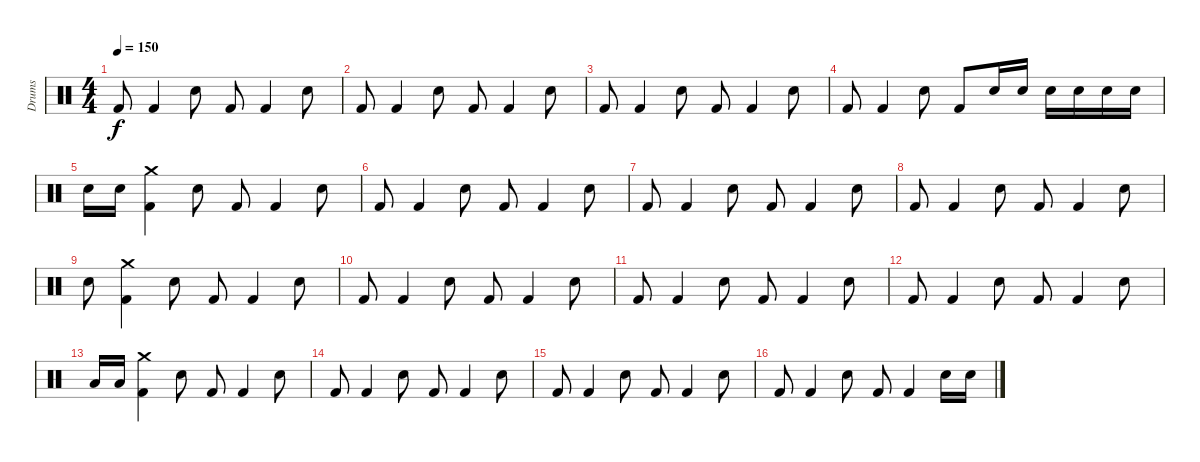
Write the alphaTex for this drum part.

\track ("Drums" "Drums") {instrument percussion}
\staff {score}
\articulation defaults
\ts (4 4)
\tempo 150
\clef neutral
\ks c "Kick (hit) 2".8{dy f} "Kick (hit) 2".4 "Snare (hit) 2".8 "Kick (hit) 2".8 "Kick (hit) 2".4 "Snare (hit) 2".8
|
"Kick (hit) 2".8 "Kick (hit) 2".4 "Snare (hit) 2".8 "Kick (hit) 2".8 "Kick (hit) 2".4 "Snare (hit) 2".8 |
"Kick (hit) 2".8 "Kick (hit) 2".4 "Snare (hit) 2".8 "Kick (hit) 2".8 "Kick (hit) 2".4 "Snare (hit) 2".8 |
"Kick (hit) 2".8 "Kick (hit) 2".4 "Snare (hit) 2".8 "Kick (hit) 2".8 "Snare (hit) 2".16 "Snare (hit) 2".16 "Snare (hit) 2".16 "Snare (hit) 2".16 "Snare (hit) 2".16 "Snare (hit) 2".16 |
"Snare (hit) 2".16 "Snare (hit) 2".16 ("Crash medium (hit)" "Kick (hit) 2").4 "Snare (hit) 2".8 "Kick (hit) 2".8 "Kick (hit) 2".4 "Snare (hit) 2".8 |
"Kick (hit) 2".8 "Kick (hit) 2".4 "Snare (hit) 2".8 "Kick (hit) 2".8 "Kick (hit) 2".4 "Snare (hit) 2".8 |
"Kick (hit) 2".8 "Kick (hit) 2".4 "Snare (hit) 2".8 "Kick (hit) 2".8 "Kick (hit) 2".4 "Snare (hit) 2".8 |
"Kick (hit) 2".8 "Kick (hit) 2".4 "Snare (hit) 2".8 "Kick (hit) 2".8 "Kick (hit) 2".4 "Snare (hit) 2".8 |
"Snare (hit) 2".8 ("Crash medium (hit)" "Kick (hit) 2").4 "Snare (hit) 2".8 "Kick (hit) 2".8 "Kick (hit) 2".4 "Snare (hit) 2".8 |
"Kick (hit) 2".8 "Kick (hit) 2".4 "Snare (hit) 2".8 "Kick (hit) 2".8 "Kick (hit) 2".4 "Snare (hit) 2".8 |
"Kick (hit) 2".8 "Kick (hit) 2".4 "Snare (hit) 2".8 "Kick (hit) 2".8 "Kick (hit) 2".4 "Snare (hit) 2".8 |
"Kick (hit) 2".8 "Kick (hit) 2".4 "Snare (hit) 2".8 "Kick (hit) 2".8 "Kick (hit) 2".4 "Snare (hit) 2".8 |
"Low Tom (hit)".16 "Low Floor Tom (hit)".16 ("Crash medium (hit)" "Kick (hit) 2").4 "Snare (hit) 2".8 "Kick (hit) 2".8 "Kick (hit) 2".4 "Snare (hit) 2".8 |
"Kick (hit) 2".8 "Kick (hit) 2".4 "Snare (hit) 2".8 "Kick (hit) 2".8 "Kick (hit) 2".4 "Snare (hit) 2".8 |
"Kick (hit) 2".8 "Kick (hit) 2".4 "Snare (hit) 2".8 "Kick (hit) 2".8 "Kick (hit) 2".4 "Snare (hit) 2".8 |
"Kick (hit) 2".8 "Kick (hit) 2".4 "Snare (hit) 2".8 "Kick (hit) 2".8 "Kick (hit) 2".4 "Snare (hit) 2".16 "Snare (hit) 2".16
